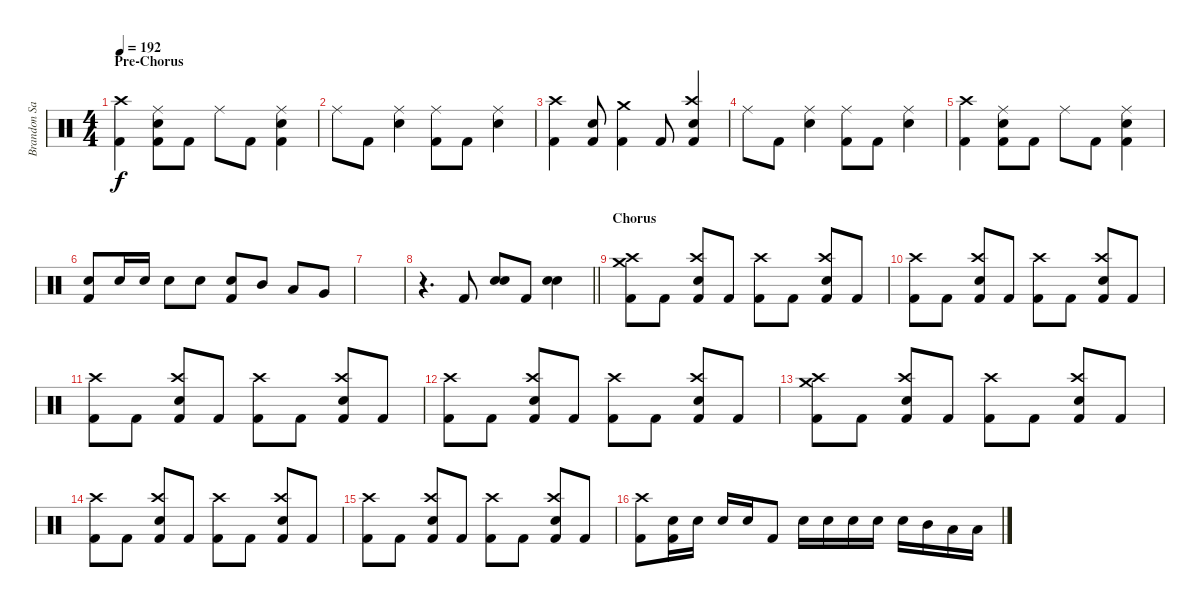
\track ("Brandon Saller" "Brandon Sa") {instrument percussion}
\staff {score}
\articulation defaults
\ts (4 4)
\section ("" "Pre-Chorus")
\tempo 192
\clef neutral
\ks aminor
("Kick (hit) 2" "Crash high (hit)").4{dy f} ("Kick (hit) 2" "Snare (hit) 2" "Ride (middle)").8 "Kick (hit) 2".8 "Ride (middle)".8 "Kick (hit) 2".8 ("Kick (hit) 2" "Snare (hit) 2" "Ride (middle)").4 |
"Ride (middle)".8 "Kick (hit) 2".8 ("Snare (hit) 2" "Ride (middle)").4 ("Kick (hit) 2" "Ride (middle)").8 "Kick (hit) 2".8 ("Snare (hit) 2" "Ride (middle)").4 |
("Kick (hit) 2" "Crash high (hit)").4 ("Kick (hit) 2" "Snare (hit) 2").8 ("Kick (hit) 2" "Crash medium (hit)").4 "Kick (hit) 2".8 ("Kick (hit) 2" "Snare (hit) 2" "Crash high (hit)").4 |
"Ride (middle)".8 "Kick (hit) 2".8 ("Snare (hit) 2" "Ride (middle)").4 ("Kick (hit) 2" "Ride (middle)").8 "Kick (hit) 2".8 ("Snare (hit) 2" "Ride (middle)").4 |
("Kick (hit) 2" "Crash high (hit)").4 ("Kick (hit) 2" "Snare (hit) 2" "Ride (middle)").8 "Kick (hit) 2".8 "Ride (middle)".8 "Kick (hit) 2".8 ("Kick (hit) 2" "Snare (hit) 2" "Ride (middle)").4 |
("Kick (hit) 2" "Snare (hit) 2").8 "Snare (hit) 2".16 "Snare (hit) 2".16 "Snare (hit) 2".8 "Snare (hit) 2".8 ("Kick (hit) 2" "Snare (hit) 2").8 "Mid Tom (hit)".8 "Low Tom (hit)".8 "Very Low Tom (hit)".8 |
|
\barLineRight lightlight
r.4{d} "Kick (hit) 2".8 ("Snare (hit) 2" "Snare (hit) 2").8 "Kick (hit) 2".8 ("Snare (hit) 2" "Snare (hit) 2").4 |
\section ("" "Chorus")
("Kick (hit) 2" "Crash medium (hit)" "Crash high (hit)").8 "Kick (hit) 2".8 ("Kick (hit) 2" "Snare (hit) 2" "Crash high (hit)").8 "Kick (hit) 2".8 ("Kick (hit) 2" "Crash high (hit)").8 "Kick (hit) 2".8 ("Kick (hit) 2" "Snare (hit) 2" "Crash high (hit)").8 "Kick (hit) 2".8 |
("Kick (hit) 2" "Crash high (hit)").8 "Kick (hit) 2".8 ("Kick (hit) 2" "Snare (hit) 2" "Crash high (hit)").8 "Kick (hit) 2".8 ("Kick (hit) 2" "Crash high (hit)").8 "Kick (hit) 2".8 ("Kick (hit) 2" "Snare (hit) 2" "Crash high (hit)").8 "Kick (hit) 2".8 |
("Kick (hit) 2" "Crash high (hit)").8 "Kick (hit) 2".8 ("Kick (hit) 2" "Snare (hit) 2" "Crash high (hit)").8 "Kick (hit) 2".8 ("Kick (hit) 2" "Crash high (hit)").8 "Kick (hit) 2".8 ("Kick (hit) 2" "Snare (hit) 2" "Crash high (hit)").8 "Kick (hit) 2".8 |
("Kick (hit) 2" "Crash high (hit)").8 "Kick (hit) 2".8 ("Kick (hit) 2" "Snare (hit) 2" "Crash high (hit)").8 "Kick (hit) 2".8 ("Kick (hit) 2" "Crash high (hit)").8 "Kick (hit) 2".8 ("Kick (hit) 2" "Snare (hit) 2" "Crash high (hit)").8 "Kick (hit) 2".8 |
("Kick (hit) 2" "Crash medium (hit)" "Crash high (hit)").8 "Kick (hit) 2".8 ("Kick (hit) 2" "Snare (hit) 2" "Crash high (hit)").8 "Kick (hit) 2".8 ("Kick (hit) 2" "Crash high (hit)").8 "Kick (hit) 2".8 ("Kick (hit) 2" "Snare (hit) 2" "Crash high (hit)").8 "Kick (hit) 2".8 |
("Kick (hit) 2" "Crash high (hit)").8 "Kick (hit) 2".8 ("Kick (hit) 2" "Snare (hit) 2" "Crash high (hit)").8 "Kick (hit) 2".8 ("Kick (hit) 2" "Crash high (hit)").8 "Kick (hit) 2".8 ("Kick (hit) 2" "Snare (hit) 2" "Crash high (hit)").8 "Kick (hit) 2".8 |
("Kick (hit) 2" "Crash high (hit)").8 "Kick (hit) 2".8 ("Kick (hit) 2" "Snare (hit) 2" "Crash high (hit)").8 "Kick (hit) 2".8 ("Kick (hit) 2" "Crash high (hit)").8 "Kick (hit) 2".8 ("Kick (hit) 2" "Snare (hit) 2" "Crash high (hit)").8 "Kick (hit) 2".8 |
("Kick (hit) 2" "Crash high (hit)").8 ("Kick (hit) 2" "Snare (hit) 2").16 "Snare (hit) 2".16 "Snare (hit) 2".16 "Snare (hit) 2".16 "Kick (hit) 2".8 "Snare (hit) 2".16 "Snare (hit) 2".16 "Snare (hit) 2".16 "Snare (hit) 2".16 "Snare (hit) 2".16 "Mid Tom (hit)".16 "Low Tom (hit)".16 "Low Floor Tom (hit)".16
